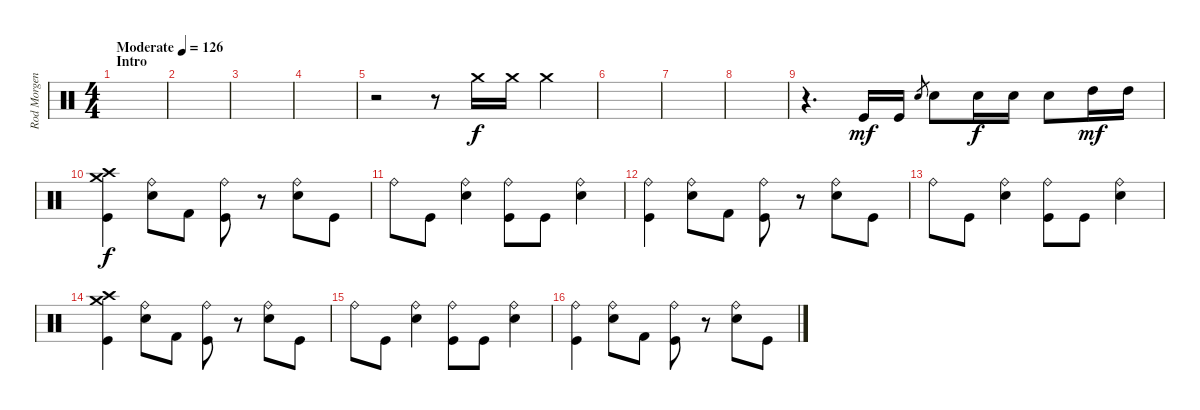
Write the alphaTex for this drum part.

\track ("Rod Morgenstein" "Rod Morgen") {instrument percussion}
\staff {score}
\articulation defaults
\ts (4 4)
\section ("" "Intro")
\tempo (126 "Moderate")
\clef neutral
\ks c
|
|
|
|
r.2 r.8 "Crash medium (hit)".16 "Crash medium (hit)".16 "Crash medium (hit)".4{dy f} |
|
|
|
r.4{d} "Kick (hit)".16{dy mf} "Kick (hit)".16 "Snare (hit) 2".8{gr} "Snare (hit) 2".8 "Snare (hit) 2".16{dy f} "Snare (hit) 2".16 "Snare (hit) 2".8 "High Tom (hit)".16{dy mf} "High Tom (hit)".16 |
("Crash high (hit)" "Crash medium (hit)" "Kick (hit)").4{dy f} ("Snare (hit) 2" "Ride (bell)").8 "Kick (hit) 2".8 ("Ride (bell)" "Kick (hit)").8 r.8 ("Ride (bell)" "Snare (hit) 2").8 "Kick (hit)".8 |
"Ride (bell)".8 "Kick (hit)".8 ("Snare (hit) 2" "Ride (bell)").4 ("Ride (bell)" "Kick (hit)").8 "Kick (hit)".8 ("Ride (bell)" "Snare (hit) 2").4 |
("Ride (bell)" "Kick (hit)").4 ("Snare (hit) 2" "Ride (bell)").8 "Kick (hit) 2".8 ("Ride (bell)" "Kick (hit)").8 r.8 ("Ride (bell)" "Snare (hit) 2").8 "Kick (hit)".8 |
"Ride (bell)".8 "Kick (hit)".8 ("Snare (hit) 2" "Ride (bell)").4 ("Ride (bell)" "Kick (hit)").8 "Kick (hit)".8 ("Ride (bell)" "Snare (hit) 2").4 |
("Crash high (hit)" "Crash medium (hit)" "Kick (hit)").4 ("Snare (hit) 2" "Ride (bell)").8 "Kick (hit) 2".8 ("Ride (bell)" "Kick (hit)").8 r.8 ("Ride (bell)" "Snare (hit) 2").8 "Kick (hit)".8 |
"Ride (bell)".8 "Kick (hit)".8 ("Snare (hit) 2" "Ride (bell)").4 ("Ride (bell)" "Kick (hit)").8 "Kick (hit)".8 ("Ride (bell)" "Snare (hit) 2").4 |
("Ride (bell)" "Kick (hit)").4 ("Snare (hit) 2" "Ride (bell)").8 "Kick (hit) 2".8 ("Ride (bell)" "Kick (hit)").8 r.8 ("Ride (bell)" "Snare (hit) 2").8 "Kick (hit)".8
